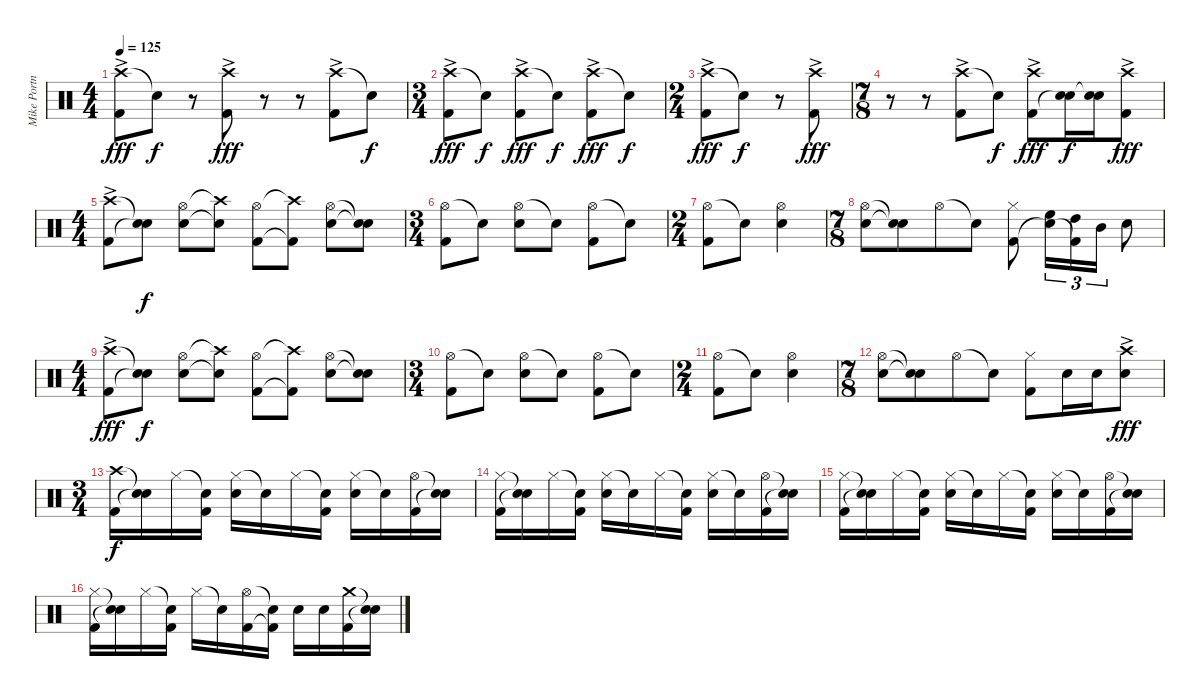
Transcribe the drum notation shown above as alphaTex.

\track ("Mike Portnoy Drums" "Mike Portn") {instrument percussion}
\staff {score}
\articulation defaults
\ts (4 4)
\tempo 125
\clef neutral
\ks c
("Crash high (hit)"{ac} "Kick (hit) 2").8{dy fff} "Snare (hit)"{t}.8{dy f} r.8 ("Crash high (hit)"{ac} "Kick (hit) 2").8{dy fff} r.8 r.8 ("Crash high (hit)"{ac} "Kick (hit) 2").8 "Snare (hit)"{t}.8{dy f} |
\ts (3 4)
("Crash high (hit)"{ac} "Kick (hit) 2").8{dy fff} "Snare (hit)"{t}.8{dy f} ("Crash high (hit)"{ac} "Kick (hit) 2").8{dy fff} "Snare (hit)"{t}.8{dy f} ("Crash high (hit)"{ac} "Kick (hit) 2").8{dy fff} "Snare (hit)"{t}.8{dy f} |
\ts (2 4)
("Crash high (hit)"{ac} "Kick (hit) 2").8{dy fff} "Snare (hit)"{t}.8{dy f} r.8 ("Crash high (hit)"{ac} "Kick (hit) 2").8{dy fff} |
\ts (7 8)
r.8 r.8 ("Crash high (hit)"{ac} "Kick (hit) 2").8 "Snare (hit)"{t}.8{dy f} ("Crash high (hit)"{ac} "Kick (hit) 2").8{dy fff} ("Snare (hit) 2" "Snare (hit)"{t}).16{dy f} ("Snare (hit) 2" "Snare (hit)"{t}).16 ("Crash high (hit)"{ac} "Kick (hit) 2").8{dy fff} |
\ts (4 4)
("Crash high (hit)"{ac} "Kick (hit) 2").8 ("Snare (hit)"{t} "Snare (hit)"{t}).8{dy f} ("Hi-Hat (open)" "Snare (hit) 2").8 ("Crash high (hit)"{t} "Snare (hit)"{t}).8 ("Hi-Hat (open)" "Kick (hit) 2").8 ("Crash high (hit)"{t} "Kick (hit) 2"{t}).8 ("Hi-Hat (open)" "Snare (hit) 2").8 ("Snare (hit)"{t} "Snare (hit)"{t}).8 |
\ts (3 4)
("Hi-Hat (open)" "Kick (hit) 2").8 "Snare (hit)"{t}.8 ("Hi-Hat (open)" "Snare (hit) 2").8 "Snare (hit)"{t}.8 ("Hi-Hat (open)" "Kick (hit) 2").8 "Snare (hit)"{t}.8 |
\ts (2 4)
("Hi-Hat (open)" "Kick (hit) 2").8 "Snare (hit)"{t}.8 ("Hi-Hat (open)" "Snare (hit) 2").4 |
\ts (7 8)
("Hi-Hat (open)" "Snare (hit) 2").8 ("Snare (hit)"{t} "Snare (hit)"{t}).8 "Hi-Hat (open)".8 "Snare (hit)"{t}.8 ("Hi-Hat (closed)" "Kick (hit) 2").8 ("High Floor Tom (hit)" "Snare (hit)"{t}).16{tu (3 2)} ("High Tom (hit)" "Kick (hit) 2"{t}).16{tu (3 2)} "Mid Tom (hit)".16{tu (3 2)} "Snare (hit) 2".8 |
\ts (4 4)
("Crash high (hit)"{ac} "Kick (hit) 2").8{dy fff} ("Snare (hit)"{t} "Snare (hit)"{t}).8{dy f} ("Hi-Hat (open)" "Snare (hit) 2").8 ("Crash high (hit)"{t} "Snare (hit)"{t}).8 ("Hi-Hat (open)" "Kick (hit) 2").8 ("Crash high (hit)"{t} "Kick (hit) 2"{t}).8 ("Hi-Hat (open)" "Snare (hit) 2").8 ("Snare (hit)"{t} "Snare (hit)"{t}).8 |
\ts (3 4)
("Hi-Hat (open)" "Kick (hit) 2").8 "Snare (hit)"{t}.8 ("Hi-Hat (open)" "Snare (hit) 2").8 "Snare (hit)"{t}.8 ("Hi-Hat (open)" "Kick (hit) 2").8 "Snare (hit)"{t}.8 |
\ts (2 4)
("Hi-Hat (open)" "Kick (hit) 2").8 "Snare (hit)"{t}.8 ("Hi-Hat (open)" "Snare (hit) 2").4 |
\ts (7 8)
("Hi-Hat (open)" "Snare (hit) 2").8 ("Snare (hit)"{t} "Snare (hit)"{t}).8 "Hi-Hat (open)".8 "Snare (hit)"{t}.8 ("Hi-Hat (closed)" "Kick (hit) 2").8 "Snare (hit) 2".16 "Snare (hit) 2".16 ("Crash high (hit)"{ac} "Snare (hit) 2").8{dy fff} |
\ts (3 4)
("Crash high (hit)" "Kick (hit) 2").16{dy f} ("Snare (hit)"{t} "Snare (hit)"{t}).16 "Hi-Hat (closed)".16 ("Snare (hit)"{t} "Kick (hit) 2").16 ("Hi-Hat (closed)" "Snare (hit) 2").16 "Snare (hit)"{t}.16 "Hi-Hat (closed)".16 ("Snare (hit)"{t} "Kick (hit) 2").16 ("Hi-Hat (closed)" "Snare (hit) 2").16 "Snare (hit)"{t}.16 ("Hi-Hat (open)" "Kick (hit) 2").16 ("Snare (hit)"{t} "Snare (hit)"{t}).16 |
("Hi-Hat (closed)" "Kick (hit) 2").16 ("Snare (hit)"{t} "Snare (hit)"{t}).16 "Hi-Hat (closed)".16 ("Snare (hit)"{t} "Kick (hit) 2").16 ("Hi-Hat (closed)" "Snare (hit) 2").16 "Snare (hit)"{t}.16 "Hi-Hat (closed)".16 ("Snare (hit)"{t} "Kick (hit) 2").16 ("Hi-Hat (closed)" "Snare (hit) 2").16 "Snare (hit)"{t}.16 ("Hi-Hat (open)" "Kick (hit) 2").16 ("Snare (hit)"{t} "Snare (hit)"{t}).16 |
("Hi-Hat (closed)" "Kick (hit) 2").16 ("Snare (hit)"{t} "Snare (hit)"{t}).16 "Hi-Hat (closed)".16 ("Snare (hit)"{t} "Kick (hit) 2").16 ("Hi-Hat (closed)" "Snare (hit) 2").16 "Snare (hit)"{t}.16 "Hi-Hat (closed)".16 ("Snare (hit)"{t} "Kick (hit) 2").16 ("Hi-Hat (closed)" "Snare (hit) 2").16 "Snare (hit)"{t}.16 ("Hi-Hat (open)" "Kick (hit) 2").16 ("Snare (hit)"{t} "Snare (hit)"{t}).16 |
("Hi-Hat (closed)" "Kick (hit) 2").16 ("Snare (hit)"{t} "Snare (hit)"{t}).16 "Hi-Hat (closed)".16 ("Snare (hit)"{t} "Kick (hit) 2").16 "Hi-Hat (closed)".16 "Snare (hit)"{t}.16 ("Hi-Hat (open)" "Kick (hit) 2").16 ("Snare (hit)"{t} "Kick (hit) 2"{t}).16 "Snare (hit) 2".16 "Snare (hit) 2".16 ("Crash medium (hit)" "Kick (hit) 2").16 ("Snare (hit)"{t} "Snare (hit)"{t}).16
